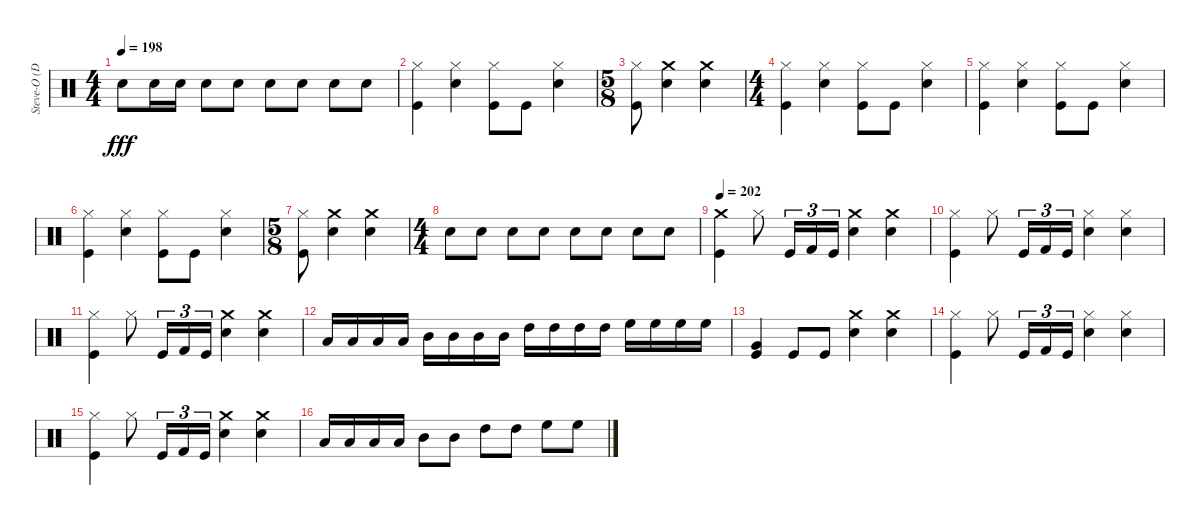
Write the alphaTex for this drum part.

\track ("Steve-O (Drums)" "Steve-O (D") {instrument percussion}
\staff {score}
\articulation defaults
\ts (4 4)
\tempo 198
\clef neutral
\ks c "Snare (hit) 2".8{dy fff} "Snare (hit) 2".16 "Snare (hit) 2".16 "Snare (hit) 2".8 "Snare (hit) 2".8 "Snare (hit) 2".8 "Snare (hit) 2".8 "Snare (hit) 2".8 "Snare (hit) 2".8
|
("Kick (hit)" "Hi-Hat (closed)").4 ("Hi-Hat (closed)" "Snare (hit) 2").4 ("Kick (hit)" "Hi-Hat (closed)").8 "Kick (hit)".8 ("Snare (hit) 2" "Hi-Hat (closed)").4 |
\ts (5 8)
("Hi-Hat (closed)" "Kick (hit)").8 ("Snare (hit) 2" "Crash medium (hit)").4 ("Snare (hit) 2" "Crash medium (hit)").4 |
\ts (4 4)
("Kick (hit)" "Hi-Hat (closed)").4 ("Snare (hit) 2" "Hi-Hat (closed)").4 ("Kick (hit)" "Hi-Hat (closed)").8 "Kick (hit)".8 ("Snare (hit) 2" "Hi-Hat (closed)").4 |
("Hi-Hat (closed)" "Kick (hit)").4 ("Snare (hit) 2" "Hi-Hat (closed)").4 ("Hi-Hat (closed)" "Kick (hit)").8 "Kick (hit)".8 ("Snare (hit) 2" "Hi-Hat (closed)").4 |
("Hi-Hat (closed)" "Kick (hit)").4 ("Snare (hit) 2" "Hi-Hat (closed)").4 ("Kick (hit)" "Hi-Hat (closed)").8 "Kick (hit)".8 ("Hi-Hat (closed)" "Snare (hit) 2").4 |
\ts (5 8)
("Hi-Hat (closed)" "Kick (hit)").8 ("Snare (hit) 2" "Crash medium (hit)").4 ("Snare (hit) 2" "Crash medium (hit)").4 |
\ts (4 4)
"Snare (hit) 2".8 "Snare (hit) 2".8 "Snare (hit) 2".8 "Snare (hit) 2".8 "Snare (hit) 2".8 "Snare (hit) 2".8 "Snare (hit) 2".8 "Snare (hit) 2".8 |
\tempo 202
("Crash medium (hit)" "Kick (hit)").4 "Hi-Hat (closed)".8 "Kick (hit)".16{tu (3 2)} "Kick (hit) 2".16{tu (3 2)} "Kick (hit)".16{tu (3 2)} ("Snare (hit) 2" "Crash medium (hit)").4 ("Crash medium (hit)" "Snare (hit) 2").4 |
("Kick (hit)" "Hi-Hat (closed)").4 "Hi-Hat (closed)".8 "Kick (hit)".16{tu (3 2)} "Kick (hit) 2".16{tu (3 2)} "Kick (hit)".16{tu (3 2)} ("Snare (hit) 2" "Hi-Hat (closed)").4 ("Snare (hit) 2" "Hi-Hat (closed)").4 |
("Hi-Hat (closed)" "Kick (hit)").4 "Hi-Hat (closed)".8 "Kick (hit)".16{tu (3 2)} "Kick (hit) 2".16{tu (3 2)} "Kick (hit)".16{tu (3 2)} ("Crash medium (hit)" "Snare (hit) 2").4 ("Crash medium (hit)" "Snare (hit) 2").4 |
"Low Tom (hit)".16 "Low Tom (hit)".16 "Low Tom (hit)".16 "Low Tom (hit)".16 "Mid Tom (hit)".16 "Mid Tom (hit)".16 "Mid Tom (hit)".16 "Mid Tom (hit)".16 "High Tom (hit)".16 "High Tom (hit)".16 "High Tom (hit)".16 "High Tom (hit)".16 "High Floor Tom (hit)".16 "High Floor Tom (hit)".16 "High Floor Tom (hit)".16 "High Floor Tom (hit)".16 |
("Kick (hit)" "Very Low Tom (hit)").4 "Kick (hit)".8 "Kick (hit)".8 ("Crash medium (hit)" "Snare (hit) 2").4 ("Crash medium (hit)" "Snare (hit) 2").4 |
("Kick (hit)" "Hi-Hat (closed)").4 "Hi-Hat (closed)".8 "Kick (hit)".16{tu (3 2)} "Kick (hit) 2".16{tu (3 2)} "Kick (hit)".16{tu (3 2)} ("Hi-Hat (closed)" "Snare (hit) 2").4 ("Snare (hit) 2" "Hi-Hat (closed)").4 |
("Hi-Hat (closed)" "Kick (hit)").4 "Hi-Hat (closed)".8 "Kick (hit)".16{tu (3 2)} "Kick (hit) 2".16{tu (3 2)} "Kick (hit)".16{tu (3 2)} ("Crash medium (hit)" "Snare (hit) 2").4 ("Crash medium (hit)" "Snare (hit) 2").4 |
"Low Tom (hit)".16 "Low Tom (hit)".16 "Low Tom (hit)".16 "Low Tom (hit)".16 "Mid Tom (hit)".8 "Mid Tom (hit)".8 "High Tom (hit)".8 "High Tom (hit)".8 "High Floor Tom (hit)".8 "High Floor Tom (hit)".8
